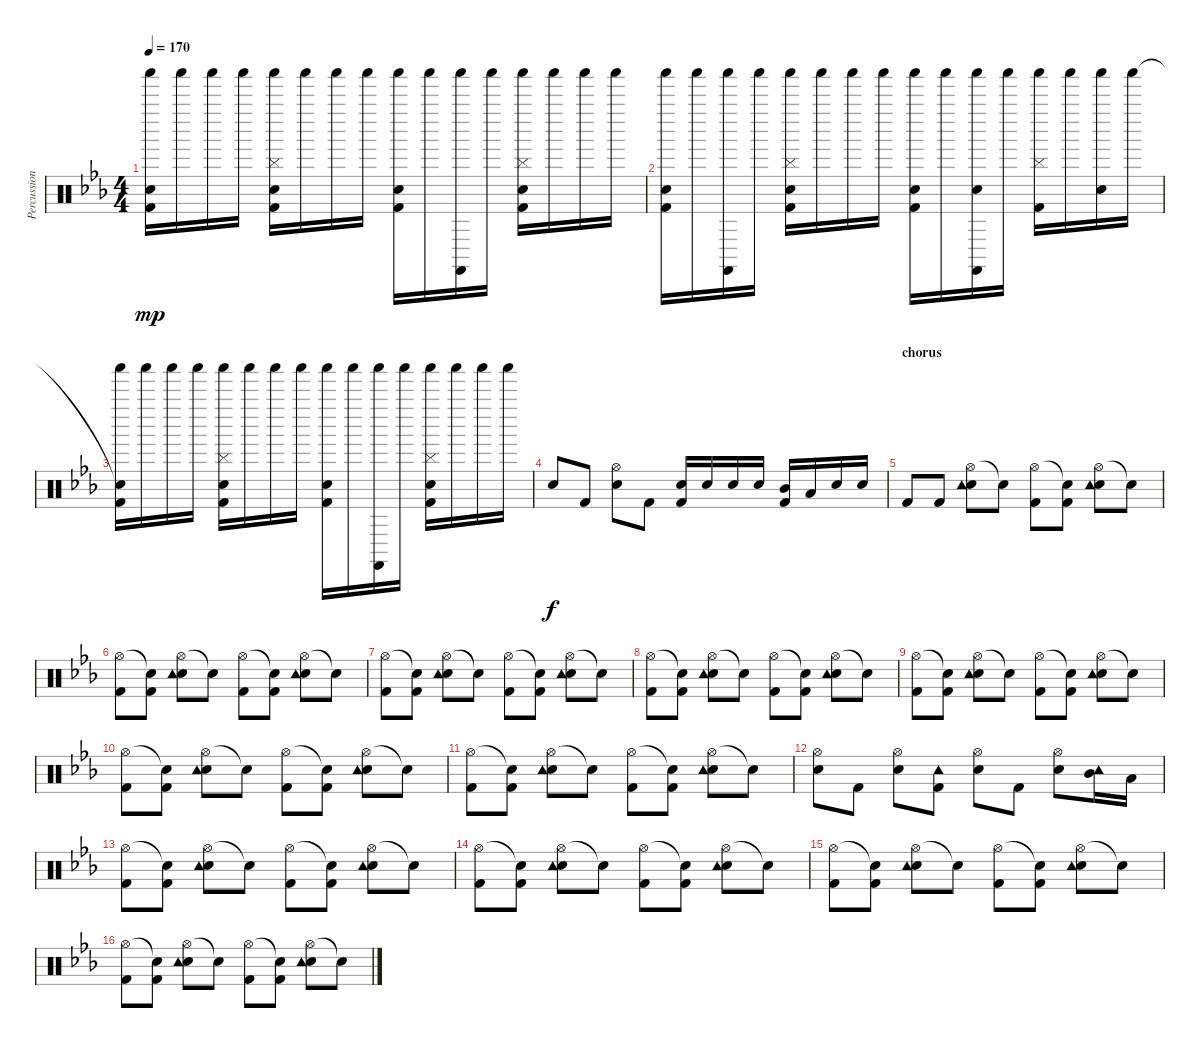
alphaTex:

\track ("Percussion" "Percussion") {instrument percussion}
\staff {score}
\articulation defaults
\ts (4 4)
\tempo 170
\clef neutral
\ks cminor
("Snare (hit)"{t} "Kick (hit) 2" "Shaker (hit)").16{dy mp} "Shaker (hit)".16 "Shaker (hit)".16 "Shaker (hit)".16 ("Hand Clap (hit)" "Cymbal (hit)" "Kick (hit) 2" "Shaker (hit)").16 "Shaker (hit)".16 "Shaker (hit)".16 "Shaker (hit)".16 ("Hand Clap (hit)" "Kick (hit) 2" "Shaker (hit)").16 "Shaker (hit)".16 ("Castanets (hit)" "Shaker (hit)").16 "Shaker (hit)".16 ("Hand Clap (hit)" "Cymbal (hit)" "Kick (hit) 2" "Shaker (hit)").16 "Shaker (hit)".16 "Shaker (hit)".16 "Shaker (hit)".16 |
("Hand Clap (hit)" "Kick (hit) 2" "Shaker (hit)").16 "Shaker (hit)".16 ("Castanets (hit)" "Shaker (hit)").16 "Shaker (hit)".16 ("Hand Clap (hit)" "Cymbal (hit)" "Kick (hit) 2" "Shaker (hit)").16 "Shaker (hit)".16 "Shaker (hit)".16 "Shaker (hit)".16 ("Hand Clap (hit)" "Kick (hit) 2" "Shaker (hit)").16 "Shaker (hit)".16 ("Hand Clap (hit)" "Castanets (hit)" "Shaker (hit)").16 "Shaker (hit)".16 ("Cymbal (hit)" "Kick (hit) 2" "Shaker (hit)").16 "Shaker (hit)".16 ("Hand Clap (hit)" "Shaker (hit)").16 "Shaker (hit)".16 |
("Snare (hit)"{t} "Kick (hit) 2" "Shaker (hit)").16 "Shaker (hit)".16 "Shaker (hit)".16 "Shaker (hit)".16 ("Hand Clap (hit)" "Cymbal (hit)" "Kick (hit) 2" "Shaker (hit)").16 "Shaker (hit)".16 "Shaker (hit)".16 "Shaker (hit)".16 ("Hand Clap (hit)" "Kick (hit) 2" "Shaker (hit)").16 "Shaker (hit)".16 ("Castanets (hit)" "Shaker (hit)").16 "Shaker (hit)".16 ("Hand Clap (hit)" "Cymbal (hit)" "Kick (hit) 2" "Shaker (hit)").16 "Shaker (hit)".16 "Shaker (hit)".16 "Shaker (hit)".16 |
"Electric Snare (hit)".8{dy f} "Kick (hit) 2".8 ("Electric Snare (hit)" "Hi-Hat (open)").8 "Kick (hit) 2".8 ("Electric Snare (hit)" "Kick (hit) 2").16 "Electric Snare (hit)".16 "Electric Snare (hit)".16 "Electric Snare (hit)".16 ("Mid Tom (hit)" "Kick (hit) 2").16 "Low Tom (hit)".16 "Electric Snare (hit)".16 "Electric Snare (hit)".16 |
\section ("" "chorus")
"Kick (hit) 2".8 "Kick (hit) 2".8 ("Hi-Hat (open)" "Electric Snare (hit)" "Tambourine (hit)").8 "Snare (hit)"{t}.8 ("Hi-Hat (open)" "Kick (hit) 2").8 ("Snare (hit)"{t} "Kick (hit) 2").8 ("Hi-Hat (open)" "Electric Snare (hit)" "Tambourine (hit)").8 "Snare (hit)"{t}.8 |
("Hi-Hat (open)" "Kick (hit) 2").8 ("Snare (hit)"{t} "Kick (hit) 2").8 ("Hi-Hat (open)" "Electric Snare (hit)" "Tambourine (hit)").8 "Snare (hit)"{t}.8 ("Hi-Hat (open)" "Kick (hit) 2").8 ("Snare (hit)"{t} "Kick (hit) 2").8 ("Hi-Hat (open)" "Electric Snare (hit)" "Tambourine (hit)").8 "Snare (hit)"{t}.8 |
("Hi-Hat (open)" "Kick (hit) 2").8 ("Snare (hit)"{t} "Kick (hit) 2").8 ("Hi-Hat (open)" "Electric Snare (hit)" "Tambourine (hit)").8 "Snare (hit)"{t}.8 ("Hi-Hat (open)" "Kick (hit) 2").8 ("Snare (hit)"{t} "Kick (hit) 2").8 ("Hi-Hat (open)" "Electric Snare (hit)" "Tambourine (hit)").8 "Snare (hit)"{t}.8 |
("Hi-Hat (open)" "Kick (hit) 2").8 ("Snare (hit)"{t} "Kick (hit) 2").8 ("Hi-Hat (open)" "Electric Snare (hit)" "Tambourine (hit)").8 "Snare (hit)"{t}.8 ("Hi-Hat (open)" "Kick (hit) 2").8 ("Snare (hit)"{t} "Kick (hit) 2").8 ("Hi-Hat (open)" "Electric Snare (hit)" "Tambourine (hit)").8 "Snare (hit)"{t}.8 |
("Hi-Hat (open)" "Kick (hit) 2").8 ("Snare (hit)"{t} "Kick (hit) 2").8 ("Hi-Hat (open)" "Electric Snare (hit)" "Tambourine (hit)").8 "Snare (hit)"{t}.8 ("Hi-Hat (open)" "Kick (hit) 2").8 ("Snare (hit)"{t} "Kick (hit) 2").8 ("Hi-Hat (open)" "Electric Snare (hit)" "Tambourine (hit)").8 "Snare (hit)"{t}.8 |
("Hi-Hat (open)" "Kick (hit) 2").8 ("Snare (hit)"{t} "Kick (hit) 2").8 ("Hi-Hat (open)" "Electric Snare (hit)" "Tambourine (hit)").8 "Snare (hit)"{t}.8 ("Hi-Hat (open)" "Kick (hit) 2").8 ("Snare (hit)"{t} "Kick (hit) 2").8 ("Hi-Hat (open)" "Electric Snare (hit)" "Tambourine (hit)").8 "Snare (hit)"{t}.8 |
("Hi-Hat (open)" "Kick (hit) 2").8 ("Snare (hit)"{t} "Kick (hit) 2").8 ("Hi-Hat (open)" "Electric Snare (hit)" "Tambourine (hit)").8 "Snare (hit)"{t}.8 ("Hi-Hat (open)" "Kick (hit) 2").8 ("Snare (hit)"{t} "Kick (hit) 2").8 ("Hi-Hat (open)" "Electric Snare (hit)" "Tambourine (hit)").8 "Snare (hit)"{t}.8 |
("Hi-Hat (open)" "Electric Snare (hit)").8 "Kick (hit) 2".8 ("Hi-Hat (open)" "Electric Snare (hit)").8 ("Kick (hit) 2" "Tambourine (hit)").8 ("Hi-Hat (open)" "Electric Snare (hit)").8 "Kick (hit) 2".8 ("Hi-Hat (open)" "Electric Snare (hit)").8 ("Mid Tom (hit)" "Tambourine (hit)").16 "Low Tom (hit)".16 |
("Hi-Hat (open)" "Kick (hit) 2").8 ("Snare (hit)"{t} "Kick (hit) 2").8 ("Hi-Hat (open)" "Electric Snare (hit)" "Tambourine (hit)").8 "Snare (hit)"{t}.8 ("Hi-Hat (open)" "Kick (hit) 2").8 ("Snare (hit)"{t} "Kick (hit) 2").8 ("Hi-Hat (open)" "Electric Snare (hit)" "Tambourine (hit)").8 "Snare (hit)"{t}.8 |
("Hi-Hat (open)" "Kick (hit) 2").8 ("Snare (hit)"{t} "Kick (hit) 2").8 ("Hi-Hat (open)" "Electric Snare (hit)" "Tambourine (hit)").8 "Snare (hit)"{t}.8 ("Hi-Hat (open)" "Kick (hit) 2").8 ("Snare (hit)"{t} "Kick (hit) 2").8 ("Hi-Hat (open)" "Electric Snare (hit)" "Tambourine (hit)").8 "Snare (hit)"{t}.8 |
("Hi-Hat (open)" "Kick (hit) 2").8 ("Snare (hit)"{t} "Kick (hit) 2").8 ("Hi-Hat (open)" "Electric Snare (hit)" "Tambourine (hit)").8 "Snare (hit)"{t}.8 ("Hi-Hat (open)" "Kick (hit) 2").8 ("Snare (hit)"{t} "Kick (hit) 2").8 ("Hi-Hat (open)" "Electric Snare (hit)" "Tambourine (hit)").8 "Snare (hit)"{t}.8 |
("Hi-Hat (open)" "Kick (hit) 2").8 ("Snare (hit)"{t} "Kick (hit) 2").8 ("Hi-Hat (open)" "Electric Snare (hit)" "Tambourine (hit)").8 "Snare (hit)"{t}.8 ("Hi-Hat (open)" "Kick (hit) 2").8 ("Snare (hit)"{t} "Kick (hit) 2").8 ("Hi-Hat (open)" "Electric Snare (hit)" "Tambourine (hit)").8 "Snare (hit)"{t}.8
